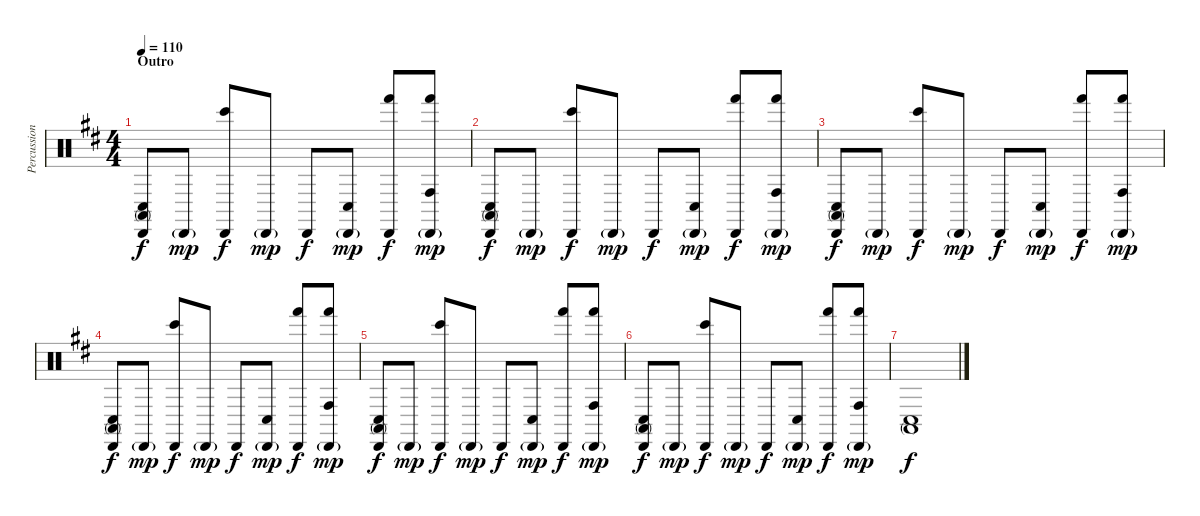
\track ("Percussions" "Percussion") {instrument percussion}
\staff {score}
\articulation defaults
\ts (4 4)
\section ("" "Outro")
\tempo 110
\clef neutral
\ks d
("Cabasa (hit)" "Conga high (mute)" "Conga low (hit)").8{dy f} "Cabasa (hit)"{g}.8{dy mp} ("Cabasa (hit)" "Bongo High (hit)").8{dy f} "Cabasa (hit)"{g}.8{dy mp} "Cabasa (hit)".8{dy f} ("Cabasa (hit)"{g} "Conga low (hit)").8{dy mp} ("Cabasa (hit)" "Hand (hit)").8{dy f} ("Cabasa (hit)"{g} "Hand (hit)" "Conga high (hit)").8{dy mp} |
("Cabasa (hit)" "Conga high (mute)" "Conga low (hit)").8{dy f} "Cabasa (hit)"{g}.8{dy mp} ("Cabasa (hit)" "Bongo High (hit)").8{dy f} "Cabasa (hit)"{g}.8{dy mp} "Cabasa (hit)".8{dy f} ("Cabasa (hit)"{g} "Conga low (hit)").8{dy mp} ("Cabasa (hit)" "Hand (hit)").8{dy f} ("Cabasa (hit)"{g} "Hand (hit)" "Conga high (hit)").8{dy mp} |
("Cabasa (hit)" "Conga high (mute)" "Conga low (hit)").8{dy f} "Cabasa (hit)"{g}.8{dy mp} ("Cabasa (hit)" "Bongo High (hit)").8{dy f} "Cabasa (hit)"{g}.8{dy mp} "Cabasa (hit)".8{dy f} ("Cabasa (hit)"{g} "Conga low (hit)").8{dy mp} ("Cabasa (hit)" "Hand (hit)").8{dy f} ("Cabasa (hit)"{g} "Hand (hit)" "Conga high (hit)").8{dy mp} |
("Cabasa (hit)" "Conga high (mute)" "Conga low (hit)").8{dy f} "Cabasa (hit)"{g}.8{dy mp} ("Cabasa (hit)" "Bongo High (hit)").8{dy f} "Cabasa (hit)"{g}.8{dy mp} "Cabasa (hit)".8{dy f} ("Cabasa (hit)"{g} "Conga low (hit)").8{dy mp} ("Cabasa (hit)" "Hand (hit)").8{dy f} ("Cabasa (hit)"{g} "Hand (hit)" "Conga high (hit)").8{dy mp} |
("Cabasa (hit)" "Conga high (mute)" "Conga low (hit)").8{dy f} "Cabasa (hit)"{g}.8{dy mp} ("Cabasa (hit)" "Bongo High (hit)").8{dy f} "Cabasa (hit)"{g}.8{dy mp} "Cabasa (hit)".8{dy f} ("Cabasa (hit)"{g} "Conga low (hit)").8{dy mp} ("Cabasa (hit)" "Hand (hit)").8{dy f} ("Cabasa (hit)"{g} "Hand (hit)" "Conga high (hit)").8{dy mp} |
("Cabasa (hit)" "Conga high (mute)" "Conga low (hit)").8{dy f} "Cabasa (hit)"{g}.8{dy mp} ("Cabasa (hit)" "Bongo High (hit)").8{dy f} "Cabasa (hit)"{g}.8{dy mp} "Cabasa (hit)".8{dy f} ("Cabasa (hit)"{g} "Conga low (hit)").8{dy mp} ("Cabasa (hit)" "Hand (hit)").8{dy f} ("Cabasa (hit)"{g} "Hand (hit)" "Conga high (hit)").8{dy mp} |
("Conga high (mute)" "Conga low (hit)").1{dy f}
